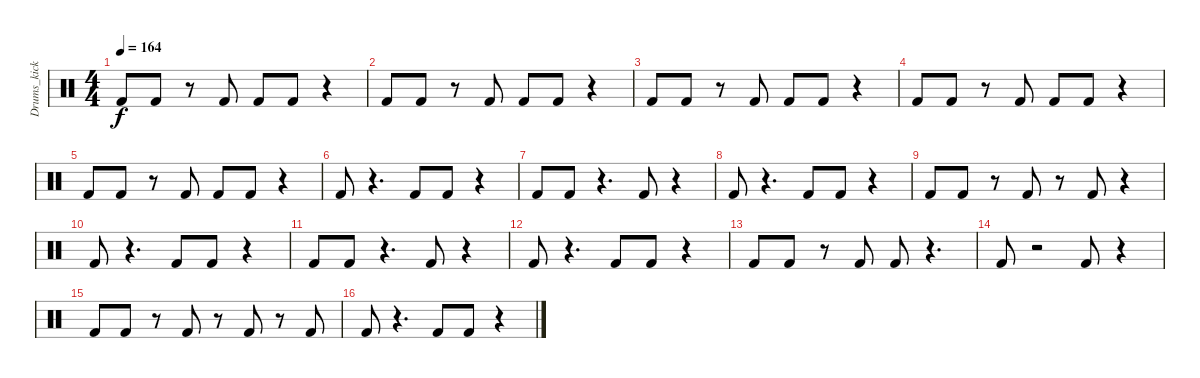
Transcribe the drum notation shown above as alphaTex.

\track ("Drums_kick" "Drums_kick") {instrument percussion}
\staff {score}
\articulation defaults
\ts (4 4)
\tempo 164
\clef neutral
\ks c "Kick (hit) 2".8{dy f} "Kick (hit) 2".8
r.8 "Kick (hit) 2".8 "Kick (hit) 2".8 "Kick (hit) 2".8 r.4 |
"Kick (hit) 2".8 "Kick (hit) 2".8 r.8 "Kick (hit) 2".8 "Kick (hit) 2".8 "Kick (hit) 2".8 r.4 |
"Kick (hit) 2".8 "Kick (hit) 2".8 r.8 "Kick (hit) 2".8 "Kick (hit) 2".8 "Kick (hit) 2".8 r.4 |
"Kick (hit) 2".8 "Kick (hit) 2".8 r.8 "Kick (hit) 2".8 "Kick (hit) 2".8 "Kick (hit) 2".8 r.4 |
"Kick (hit) 2".8 "Kick (hit) 2".8 r.8 "Kick (hit) 2".8 "Kick (hit) 2".8 "Kick (hit) 2".8 r.4 |
"Kick (hit) 2".8 r.4{d} "Kick (hit) 2".8 "Kick (hit) 2".8 r.4 |
"Kick (hit) 2".8 "Kick (hit) 2".8 r.4{d} "Kick (hit) 2".8 r.4 |
"Kick (hit) 2".8 r.4{d} "Kick (hit) 2".8 "Kick (hit) 2".8 r.4 |
"Kick (hit) 2".8 "Kick (hit) 2".8 r.8 "Kick (hit) 2".8 r.8 "Kick (hit) 2".8 r.4 |
"Kick (hit) 2".8 r.4{d} "Kick (hit) 2".8 "Kick (hit) 2".8 r.4 |
"Kick (hit) 2".8 "Kick (hit) 2".8 r.4{d} "Kick (hit) 2".8 r.4 |
"Kick (hit) 2".8 r.4{d} "Kick (hit) 2".8 "Kick (hit) 2".8 r.4 |
"Kick (hit) 2".8 "Kick (hit) 2".8 r.8 "Kick (hit) 2".8 "Kick (hit) 2".8 r.4{d} |
"Kick (hit) 2".8 r.2 "Kick (hit) 2".8 r.4 |
"Kick (hit) 2".8 "Kick (hit) 2".8 r.8 "Kick (hit) 2".8 r.8 "Kick (hit) 2".8 r.8 "Kick (hit) 2".8 |
"Kick (hit) 2".8 r.4{d} "Kick (hit) 2".8 "Kick (hit) 2".8 r.4
